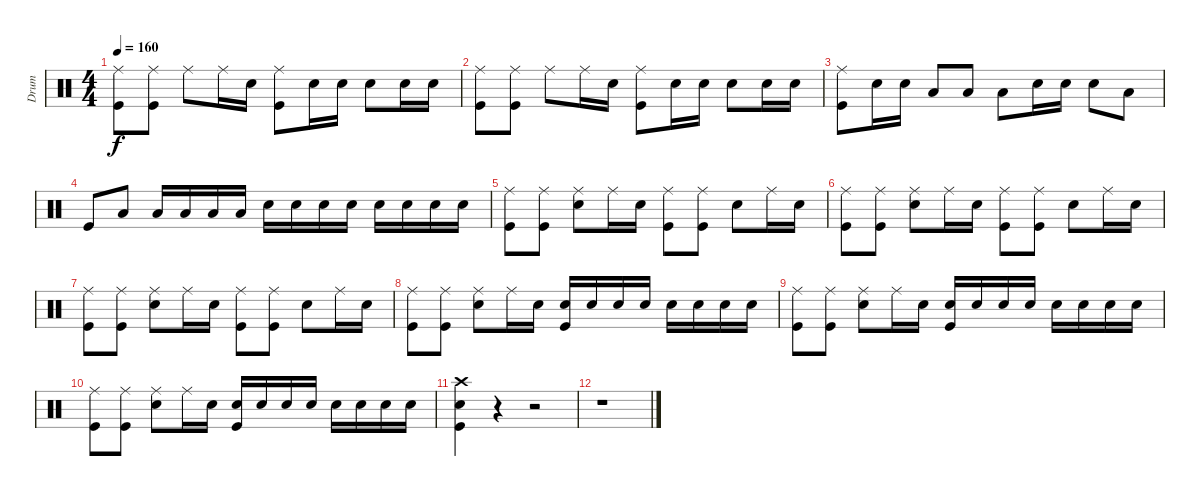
\track ("Drum" "Drum") {instrument percussion}
\staff {score}
\articulation defaults
\ts (4 4)
\tempo 160
\clef neutral
\ks c
("Ride (middle)" "Kick (hit)").8{dy f} ("Ride (middle)" "Kick (hit)").8 "Ride (middle)".8 "Ride (middle)".16 "Electric Snare (hit)".16 ("Ride (middle)" "Kick (hit)").8 "Electric Snare (hit)".16 "Electric Snare (hit)".16 "Electric Snare (hit)".8 "Electric Snare (hit)".16 "Electric Snare (hit)".16 |
("Ride (middle)" "Kick (hit)").8 ("Ride (middle)" "Kick (hit)").8 "Ride (middle)".8 "Ride (middle)".16 "Electric Snare (hit)".16 ("Ride (middle)" "Kick (hit)").8 "Electric Snare (hit)".16 "Electric Snare (hit)".16 "Electric Snare (hit)".8 "Electric Snare (hit)".16 "Electric Snare (hit)".16 |
("Ride (middle)" "Kick (hit)").8 "Electric Snare (hit)".16 "Electric Snare (hit)".16 "Low Tom (hit)".8 "Low Tom (hit)".8 "Low Tom (hit)".8 "Electric Snare (hit)".16 "Electric Snare (hit)".16 "Electric Snare (hit)".8 "Low Tom (hit)".8 |
"Kick (hit)".8 "Low Tom (hit)".8 "Low Tom (hit)".16 "Low Tom (hit)".16 "Low Tom (hit)".16 "Low Tom (hit)".16 "Electric Snare (hit)".16 "Electric Snare (hit)".16 "Electric Snare (hit)".16 "Electric Snare (hit)".16 "Electric Snare (hit)".16 "Electric Snare (hit)".16 "Electric Snare (hit)".16 "Electric Snare (hit)".16 |
("Ride (middle)" "Kick (hit)").8 ("Ride (middle)" "Kick (hit)").8 ("Ride (middle)" "Electric Snare (hit)").8 "Ride (middle)".16 "Electric Snare (hit)".16 ("Ride (middle)" "Kick (hit)").8 ("Ride (middle)" "Kick (hit)").8 "Electric Snare (hit)".8 "Ride (middle)".16 "Electric Snare (hit)".16 |
("Ride (middle)" "Kick (hit)").8 ("Ride (middle)" "Kick (hit)").8 ("Ride (middle)" "Electric Snare (hit)").8 "Ride (middle)".16 "Electric Snare (hit)".16 ("Ride (middle)" "Kick (hit)").8 ("Ride (middle)" "Kick (hit)").8 "Electric Snare (hit)".8 "Ride (middle)".16 "Electric Snare (hit)".16 |
("Ride (middle)" "Kick (hit)").8 ("Ride (middle)" "Kick (hit)").8 ("Ride (middle)" "Electric Snare (hit)").8 "Ride (middle)".16 "Electric Snare (hit)".16 ("Ride (middle)" "Kick (hit)").8 ("Ride (middle)" "Kick (hit)").8 "Electric Snare (hit)".8 "Ride (middle)".16 "Electric Snare (hit)".16 |
("Ride (middle)" "Kick (hit)").8 ("Ride (middle)" "Kick (hit)").8 ("Ride (middle)" "Electric Snare (hit)").8 "Ride (middle)".16 "Electric Snare (hit)".16 ("Electric Snare (hit)" "Kick (hit)").16 "Electric Snare (hit)".16 "Electric Snare (hit)".16 "Electric Snare (hit)".16 "Electric Snare (hit)".16 "Electric Snare (hit)".16 "Electric Snare (hit)".16 "Electric Snare (hit)".16 |
("Ride (middle)" "Kick (hit)").8 ("Ride (middle)" "Kick (hit)").8 ("Ride (middle)" "Electric Snare (hit)").8 "Ride (middle)".16 "Electric Snare (hit)".16 ("Electric Snare (hit)" "Kick (hit)").16 "Electric Snare (hit)".16 "Electric Snare (hit)".16 "Electric Snare (hit)".16 "Electric Snare (hit)".16 "Electric Snare (hit)".16 "Electric Snare (hit)".16 "Electric Snare (hit)".16 |
("Ride (middle)" "Kick (hit)").8 ("Ride (middle)" "Kick (hit)").8 ("Ride (middle)" "Electric Snare (hit)").8 "Ride (middle)".16 "Electric Snare (hit)".16 ("Electric Snare (hit)" "Kick (hit)").16 "Electric Snare (hit)".16 "Electric Snare (hit)".16 "Electric Snare (hit)".16 "Electric Snare (hit)".16 "Electric Snare (hit)".16 "Electric Snare (hit)".16 "Electric Snare (hit)".16 |
("Crash high (hit)" "Electric Snare (hit)" "Kick (hit)").4 r.4 r.2 |
r.1
